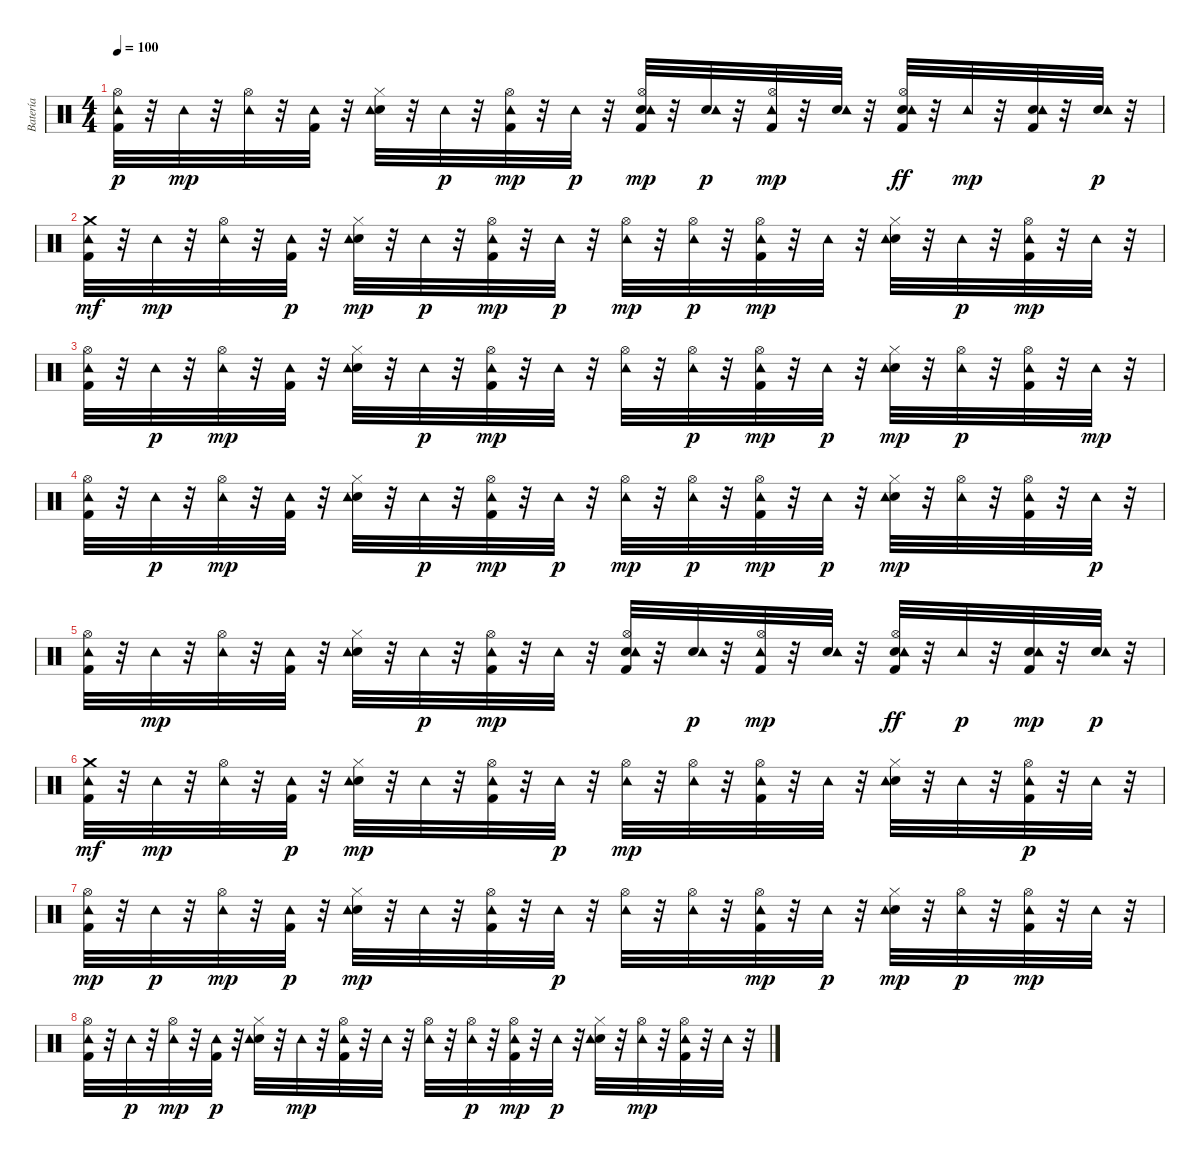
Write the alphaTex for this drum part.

\track ("Batería" "Batería") {instrument percussion}
\staff {score}
\articulation defaults
\ts (4 4)
\tempo 100
\clef neutral
\ks c
("Kick (hit) 2" "Hi-Hat (open)" "Tambourine (hit)").32{dy p} r.32 "Tambourine (hit)".32{dy mp} r.32 ("Hi-Hat (open)" "Tambourine (hit)").32 r.32 ("Kick (hit) 2" "Tambourine (hit)").32 r.32 ("Electric Snare (hit)" "Hi-Hat (closed)" "Tambourine (hit)").32 r.32 "Tambourine (hit)".32{dy p} r.32 ("Kick (hit) 2" "Hi-Hat (open)" "Tambourine (hit)").32{dy mp} r.32 "Tambourine (hit)".32{dy p} r.32 ("Kick (hit) 2" "Electric Snare (hit)" "Hi-Hat (open)" "Tambourine (hit)").32{dy mp} r.32 ("Electric Snare (hit)" "Tambourine (hit)").32{dy p} r.32 ("Kick (hit) 2" "Hi-Hat (open)" "Tambourine (hit)").32{dy mp} r.32 ("Electric Snare (hit)" "Tambourine (hit)").32 r.32 ("Kick (hit) 2" "Electric Snare (hit)" "Hi-Hat (open)" "Tambourine (hit)").32{dy ff} r.32 "Tambourine (hit)".32{dy mp} r.32 ("Kick (hit) 2" "Electric Snare (hit)" "Tambourine (hit)").32 r.32 ("Electric Snare (hit)" "Tambourine (hit)").32{dy p} r.32 |
("Kick (hit) 2" "Tambourine (hit)" "Crash medium (hit)").32{dy mf} r.32 "Tambourine (hit)".32{dy mp} r.32 ("Hi-Hat (open)" "Tambourine (hit)").32 r.32 ("Kick (hit) 2" "Tambourine (hit)").32{dy p} r.32 ("Electric Snare (hit)" "Hi-Hat (closed)" "Tambourine (hit)").32{dy mp} r.32 "Tambourine (hit)".32{dy p} r.32 ("Kick (hit) 2" "Hi-Hat (open)" "Tambourine (hit)").32{dy mp} r.32 "Tambourine (hit)".32{dy p} r.32 ("Hi-Hat (open)" "Tambourine (hit)").32{dy mp} r.32 ("Hi-Hat (open)" "Tambourine (hit)").32{dy p} r.32 ("Kick (hit) 2" "Hi-Hat (open)" "Tambourine (hit)").32{dy mp} r.32 "Tambourine (hit)".32 r.32 ("Electric Snare (hit)" "Hi-Hat (closed)" "Tambourine (hit)").32 r.32 "Tambourine (hit)".32{dy p} r.32 ("Kick (hit) 2" "Hi-Hat (open)" "Tambourine (hit)").32{dy mp} r.32 "Tambourine (hit)".32 r.32 |
("Kick (hit) 2" "Hi-Hat (open)" "Tambourine (hit)").32 r.32 "Tambourine (hit)".32{dy p} r.32 ("Hi-Hat (open)" "Tambourine (hit)").32{dy mp} r.32 ("Kick (hit) 2" "Tambourine (hit)").32 r.32 ("Electric Snare (hit)" "Hi-Hat (closed)" "Tambourine (hit)").32 r.32 "Tambourine (hit)".32{dy p} r.32 ("Kick (hit) 2" "Hi-Hat (open)" "Tambourine (hit)").32{dy mp} r.32 "Tambourine (hit)".32 r.32 ("Hi-Hat (open)" "Tambourine (hit)").32 r.32 ("Hi-Hat (open)" "Tambourine (hit)").32{dy p} r.32 ("Kick (hit) 2" "Hi-Hat (open)" "Tambourine (hit)").32{dy mp} r.32 "Tambourine (hit)".32{dy p} r.32 ("Electric Snare (hit)" "Hi-Hat (closed)" "Tambourine (hit)").32{dy mp} r.32 ("Hi-Hat (open)" "Tambourine (hit)").32{dy p} r.32 ("Kick (hit) 2" "Hi-Hat (open)" "Tambourine (hit)").32 r.32 "Tambourine (hit)".32{dy mp} r.32 |
("Kick (hit) 2" "Hi-Hat (open)" "Tambourine (hit)").32 r.32 "Tambourine (hit)".32{dy p} r.32 ("Hi-Hat (open)" "Tambourine (hit)").32{dy mp} r.32 ("Kick (hit) 2" "Tambourine (hit)").32 r.32 ("Electric Snare (hit)" "Hi-Hat (closed)" "Tambourine (hit)").32 r.32 "Tambourine (hit)".32{dy p} r.32 ("Kick (hit) 2" "Hi-Hat (open)" "Tambourine (hit)").32{dy mp} r.32 "Tambourine (hit)".32{dy p} r.32 ("Hi-Hat (open)" "Tambourine (hit)").32{dy mp} r.32 ("Hi-Hat (open)" "Tambourine (hit)").32{dy p} r.32 ("Kick (hit) 2" "Hi-Hat (open)" "Tambourine (hit)").32{dy mp} r.32 "Tambourine (hit)".32{dy p} r.32 ("Electric Snare (hit)" "Hi-Hat (closed)" "Tambourine (hit)").32{dy mp} r.32 ("Hi-Hat (open)" "Tambourine (hit)").32 r.32 ("Kick (hit) 2" "Hi-Hat (open)" "Tambourine (hit)").32 r.32 "Tambourine (hit)".32{dy p} r.32 |
("Kick (hit) 2" "Hi-Hat (open)" "Tambourine (hit)").32 r.32 "Tambourine (hit)".32{dy mp} r.32 ("Hi-Hat (open)" "Tambourine (hit)").32 r.32 ("Kick (hit) 2" "Tambourine (hit)").32 r.32 ("Electric Snare (hit)" "Hi-Hat (closed)" "Tambourine (hit)").32 r.32 "Tambourine (hit)".32{dy p} r.32 ("Kick (hit) 2" "Hi-Hat (open)" "Tambourine (hit)").32{dy mp} r.32 "Tambourine (hit)".32 r.32 ("Kick (hit) 2" "Electric Snare (hit)" "Hi-Hat (open)" "Tambourine (hit)").32 r.32 ("Electric Snare (hit)" "Tambourine (hit)").32{dy p} r.32 ("Kick (hit) 2" "Hi-Hat (open)" "Tambourine (hit)").32{dy mp} r.32 ("Electric Snare (hit)" "Tambourine (hit)").32 r.32 ("Kick (hit) 2" "Electric Snare (hit)" "Hi-Hat (open)" "Tambourine (hit)").32{dy ff} r.32 "Tambourine (hit)".32{dy p} r.32 ("Kick (hit) 2" "Electric Snare (hit)" "Tambourine (hit)").32{dy mp} r.32 ("Electric Snare (hit)" "Tambourine (hit)").32{dy p} r.32 |
("Kick (hit) 2" "Tambourine (hit)" "Crash medium (hit)").32{dy mf} r.32 "Tambourine (hit)".32{dy mp} r.32 ("Hi-Hat (open)" "Tambourine (hit)").32 r.32 ("Kick (hit) 2" "Tambourine (hit)").32{dy p} r.32 ("Electric Snare (hit)" "Hi-Hat (closed)" "Tambourine (hit)").32{dy mp} r.32 "Tambourine (hit)".32 r.32 ("Kick (hit) 2" "Hi-Hat (open)" "Tambourine (hit)").32 r.32 "Tambourine (hit)".32{dy p} r.32 ("Hi-Hat (open)" "Tambourine (hit)").32{dy mp} r.32 ("Hi-Hat (open)" "Tambourine (hit)").32 r.32 ("Kick (hit) 2" "Hi-Hat (open)" "Tambourine (hit)").32 r.32 "Tambourine (hit)".32 r.32 ("Electric Snare (hit)" "Hi-Hat (closed)" "Tambourine (hit)").32 r.32 "Tambourine (hit)".32 r.32 ("Kick (hit) 2" "Hi-Hat (open)" "Tambourine (hit)").32{dy p} r.32 "Tambourine (hit)".32 r.32 |
("Kick (hit) 2" "Hi-Hat (open)" "Tambourine (hit)").32{dy mp} r.32 "Tambourine (hit)".32{dy p} r.32 ("Hi-Hat (open)" "Tambourine (hit)").32{dy mp} r.32 ("Kick (hit) 2" "Tambourine (hit)").32{dy p} r.32 ("Electric Snare (hit)" "Hi-Hat (closed)" "Tambourine (hit)").32{dy mp} r.32 "Tambourine (hit)".32 r.32 ("Kick (hit) 2" "Hi-Hat (open)" "Tambourine (hit)").32 r.32 "Tambourine (hit)".32{dy p} r.32 ("Hi-Hat (open)" "Tambourine (hit)").32 r.32 ("Hi-Hat (open)" "Tambourine (hit)").32 r.32 ("Kick (hit) 2" "Hi-Hat (open)" "Tambourine (hit)").32{dy mp} r.32 "Tambourine (hit)".32{dy p} r.32 ("Electric Snare (hit)" "Hi-Hat (closed)" "Tambourine (hit)").32{dy mp} r.32 ("Hi-Hat (open)" "Tambourine (hit)").32{dy p} r.32 ("Kick (hit) 2" "Hi-Hat (open)" "Tambourine (hit)").32{dy mp} r.32 "Tambourine (hit)".32 r.32 |
("Kick (hit) 2" "Hi-Hat (open)" "Tambourine (hit)").32 r.32 "Tambourine (hit)".32{dy p} r.32 ("Hi-Hat (open)" "Tambourine (hit)").32{dy mp} r.32 ("Kick (hit) 2" "Tambourine (hit)").32{dy p} r.32 ("Electric Snare (hit)" "Hi-Hat (closed)" "Tambourine (hit)").32 r.32 "Tambourine (hit)".32{dy mp} r.32 ("Kick (hit) 2" "Hi-Hat (open)" "Tambourine (hit)").32 r.32 "Tambourine (hit)".32 r.32 ("Hi-Hat (open)" "Tambourine (hit)").32 r.32 ("Hi-Hat (open)" "Tambourine (hit)").32{dy p} r.32 ("Kick (hit) 2" "Hi-Hat (open)" "Tambourine (hit)").32{dy mp} r.32 "Tambourine (hit)".32{dy p} r.32 ("Electric Snare (hit)" "Hi-Hat (closed)" "Tambourine (hit)").32 r.32 ("Hi-Hat (open)" "Tambourine (hit)").32{dy mp} r.32 ("Kick (hit) 2" "Hi-Hat (open)" "Tambourine (hit)").32 r.32 "Tambourine (hit)".32 r.32
